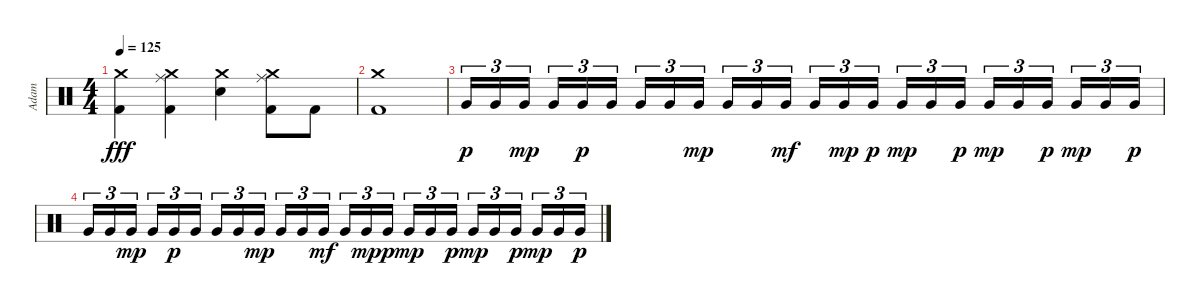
\track ("Adam" "Adam") {instrument percussion}
\staff {score}
\articulation defaults
\ts (4 4)
\tempo 125
\clef neutral
\ks c
("Crash medium (hit)" "Kick (hit) 2").4{dy fff} ("Crash medium (hit)" "Ride (middle)" "Kick (hit) 2").4 ("Crash medium (hit)" "Electric Snare (hit)").4 ("Crash medium (hit)" "Ride (middle)" "Kick (hit) 2").8 "Kick (hit) 2".8 |
("Crash medium (hit)" "Kick (hit) 2").1 |
"Very Low Tom (hit)".16{tu (3 2) dy p} "Very Low Tom (hit)".16{tu (3 2)} "Very Low Tom (hit)".16{tu (3 2) dy mp} "Very Low Tom (hit)".16{tu (3 2)} "Very Low Tom (hit)".16{tu (3 2) dy p} "Very Low Tom (hit)".16{tu (3 2)} "Very Low Tom (hit)".16{tu (3 2)} "Very Low Tom (hit)".16{tu (3 2)} "Very Low Tom (hit)".16{tu (3 2) dy mp} "Very Low Tom (hit)".16{tu (3 2)} "Very Low Tom (hit)".16{tu (3 2)} "Very Low Tom (hit)".16{tu (3 2) dy mf} "Very Low Tom (hit)".16{tu (3 2)} "Very Low Tom (hit)".16{tu (3 2) dy mp} "Very Low Tom (hit)".16{tu (3 2) dy p} "Very Low Tom (hit)".16{tu (3 2) dy mp} "Very Low Tom (hit)".16{tu (3 2)} "Very Low Tom (hit)".16{tu (3 2) dy p} "Very Low Tom (hit)".16{tu (3 2) dy mp} "Very Low Tom (hit)".16{tu (3 2)} "Very Low Tom (hit)".16{tu (3 2) dy p} "Very Low Tom (hit)".16{tu (3 2) dy mp} "Very Low Tom (hit)".16{tu (3 2)} "Very Low Tom (hit)".16{tu (3 2) dy p} |
"Very Low Tom (hit)".16{tu (3 2)} "Very Low Tom (hit)".16{tu (3 2)} "Very Low Tom (hit)".16{tu (3 2) dy mp} "Very Low Tom (hit)".16{tu (3 2)} "Very Low Tom (hit)".16{tu (3 2) dy p} "Very Low Tom (hit)".16{tu (3 2)} "Very Low Tom (hit)".16{tu (3 2)} "Very Low Tom (hit)".16{tu (3 2)} "Very Low Tom (hit)".16{tu (3 2) dy mp} "Very Low Tom (hit)".16{tu (3 2)} "Very Low Tom (hit)".16{tu (3 2)} "Very Low Tom (hit)".16{tu (3 2) dy mf} "Very Low Tom (hit)".16{tu (3 2)} "Very Low Tom (hit)".16{tu (3 2) dy mp} "Very Low Tom (hit)".16{tu (3 2) dy p} "Very Low Tom (hit)".16{tu (3 2) dy mp} "Very Low Tom (hit)".16{tu (3 2)} "Very Low Tom (hit)".16{tu (3 2) dy p} "Very Low Tom (hit)".16{tu (3 2) dy mp} "Very Low Tom (hit)".16{tu (3 2)} "Very Low Tom (hit)".16{tu (3 2) dy p} "Very Low Tom (hit)".16{tu (3 2) dy mp} "Very Low Tom (hit)".16{tu (3 2)} "Very Low Tom (hit)".16{tu (3 2) dy p}
